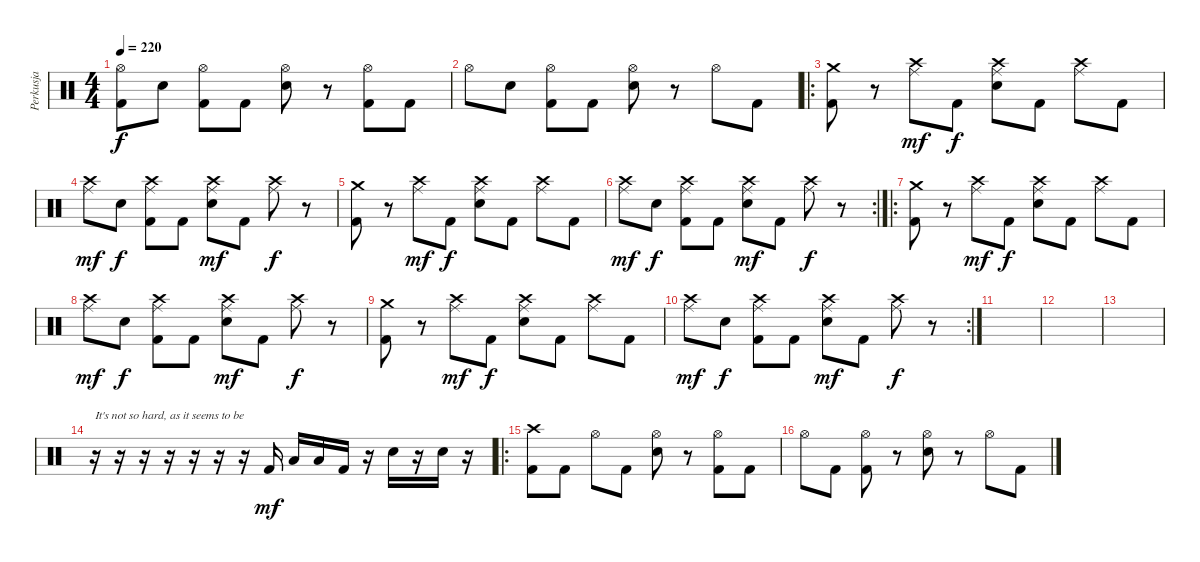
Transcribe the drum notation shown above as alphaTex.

\track ("Perkusja" "Perkusja") {instrument percussion}
\staff {score}
\articulation defaults
\ts (4 4)
\tempo 220
\clef neutral
\ks c
("Hi-Hat (open)" "Kick (hit) 2").8{dy f} "Snare (hit) 2".8 ("Hi-Hat (open)" "Kick (hit) 2").8 "Kick (hit) 2".8 ("Hi-Hat (open)" "Snare (hit) 2").8 r.8 ("Hi-Hat (open)" "Kick (hit) 2").8 "Kick (hit) 2".8 |
"Hi-Hat (open)".8 "Snare (hit) 2".8 ("Hi-Hat (open)" "Kick (hit) 2").8 "Kick (hit) 2".8 ("Hi-Hat (open)" "Snare (hit) 2").8 r.8 "Hi-Hat (open)".8 "Kick (hit) 2".8 |
\ro
("Crash medium (hit)" "Kick (hit) 2").8 r.8 ("Crash high (hit)" "Ride (middle)").8{dy mf} "Kick (hit) 2".8{dy f} ("Crash high (hit)" "Snare (hit) 2" "Ride (middle)").8 "Kick (hit) 2".8 ("Crash high (hit)" "Ride (middle)").8 "Kick (hit) 2".8 |
("Crash high (hit)" "Ride (middle)").8{dy mf} "Snare (hit) 2".8{dy f} ("Crash high (hit)" "Kick (hit) 2" "Ride (middle)").8 "Kick (hit) 2".8 ("Crash high (hit)" "Snare (hit) 2" "Ride (middle)").8{dy mf} "Kick (hit) 2".8 ("Crash high (hit)" "Ride (middle)").8{dy f} r.8 |
("Crash medium (hit)" "Kick (hit) 2").8 r.8 ("Crash high (hit)" "Ride (middle)").8{dy mf} "Kick (hit) 2".8{dy f} ("Crash high (hit)" "Snare (hit) 2" "Ride (middle)").8 "Kick (hit) 2".8 ("Crash high (hit)" "Ride (middle)").8 "Kick (hit) 2".8 |
\rc 2
("Crash high (hit)" "Ride (middle)").8{dy mf} "Snare (hit) 2".8{dy f} ("Crash high (hit)" "Kick (hit) 2" "Ride (middle)").8 "Kick (hit) 2".8 ("Crash high (hit)" "Snare (hit) 2" "Ride (middle)").8{dy mf} "Kick (hit) 2".8 ("Crash high (hit)" "Ride (middle)").8{dy f} r.8 |
\ro
("Crash medium (hit)" "Kick (hit) 2").8 r.8 ("Crash high (hit)" "Ride (middle)").8{dy mf} "Kick (hit) 2".8{dy f} ("Crash high (hit)" "Snare (hit) 2" "Ride (middle)").8 "Kick (hit) 2".8 ("Crash high (hit)" "Ride (middle)").8 "Kick (hit) 2".8 |
("Crash high (hit)" "Ride (middle)").8{dy mf} "Snare (hit) 2".8{dy f} ("Crash high (hit)" "Kick (hit) 2" "Ride (middle)").8 "Kick (hit) 2".8 ("Crash high (hit)" "Snare (hit) 2" "Ride (middle)").8{dy mf} "Kick (hit) 2".8 ("Crash high (hit)" "Ride (middle)").8{dy f} r.8 |
("Crash medium (hit)" "Kick (hit) 2").8 r.8 ("Crash high (hit)" "Ride (middle)").8{dy mf} "Kick (hit) 2".8{dy f} ("Crash high (hit)" "Snare (hit) 2" "Ride (middle)").8 "Kick (hit) 2".8 ("Crash high (hit)" "Ride (middle)").8 "Kick (hit) 2".8 |
\rc 2
("Crash high (hit)" "Ride (middle)").8{dy mf} "Snare (hit) 2".8{dy f} ("Crash high (hit)" "Kick (hit) 2" "Ride (middle)").8 "Kick (hit) 2".8 ("Crash high (hit)" "Snare (hit) 2" "Ride (middle)").8{dy mf} "Kick (hit) 2".8 ("Crash high (hit)" "Ride (middle)").8{dy f} r.8 |
|
|
|
r.16{txt "It's not so hard, as it seems to be"} r.16 r.16 r.16 r.16 r.16 r.16 "Kick (hit) 2".16{dy mf} "Low Tom (hit)".16 "Low Floor Tom (hit)".16 "Kick (hit) 2".16 r.16 "Snare (hit) 2".16 r.16 "Snare (hit) 2".16 r.16 |
\ro
("Crash high (hit)" "Kick (hit) 2").8 "Kick (hit) 2".8 "Hi-Hat (open)".8 "Kick (hit) 2".8 ("Hi-Hat (open)" "Snare (hit) 2").8 r.8 ("Hi-Hat (open)" "Kick (hit) 2").8 "Kick (hit) 2".8 |
"Hi-Hat (open)".8 "Kick (hit) 2".8 ("Hi-Hat (open)" "Kick (hit) 2").8 r.8 ("Hi-Hat (open)" "Snare (hit) 2").8 r.8 "Hi-Hat (open)".8 "Kick (hit) 2".8
